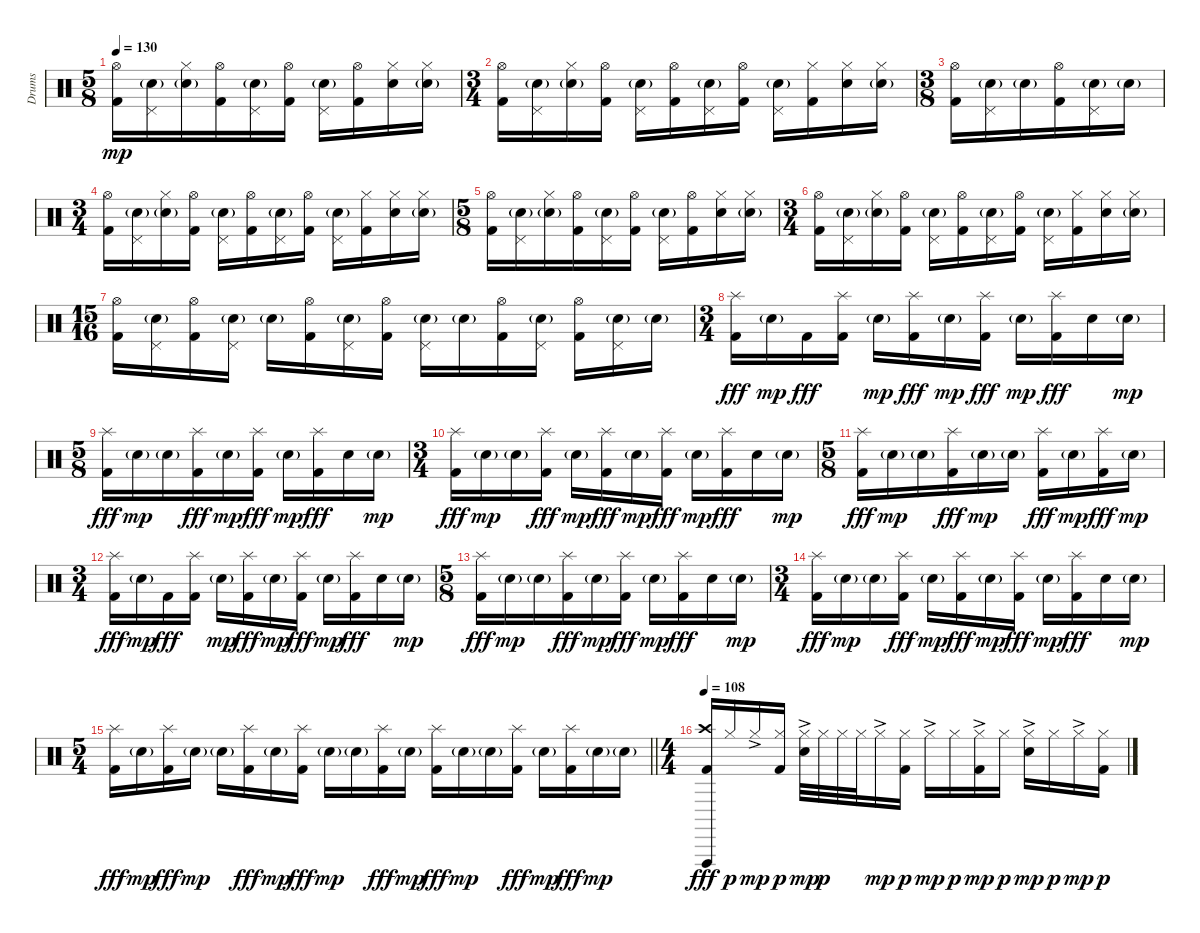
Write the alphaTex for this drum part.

\track ("Drums" "Drums") {instrument percussion}
\staff {score}
\articulation defaults
\ts (5 8)
\tempo 130
\clef neutral
\ks c
("Kick (hit) 2" "Hi-Hat (open)").16{dy mp} ("Electric Snare (hit)"{g} "Pedal Hi-Hat (hit)").16 ("Electric Snare (hit)"{g} "Hi-Hat (closed)").16 ("Kick (hit) 2" "Hi-Hat (open)").16 ("Electric Snare (hit)"{g} "Pedal Hi-Hat (hit)").16 ("Kick (hit) 2" "Hi-Hat (open)").16 ("Electric Snare (hit)"{g} "Pedal Hi-Hat (hit)").16 ("Kick (hit) 2" "Hi-Hat (open)").16 ("Electric Snare (hit)" "Hi-Hat (closed)").16 ("Electric Snare (hit)"{g} "Hi-Hat (closed)").16 |
\ts (3 4)
("Kick (hit) 2" "Hi-Hat (open)").16 ("Electric Snare (hit)"{g} "Pedal Hi-Hat (hit)").16 ("Electric Snare (hit)"{g} "Hi-Hat (closed)").16 ("Kick (hit) 2" "Hi-Hat (open)").16 ("Electric Snare (hit)"{g} "Pedal Hi-Hat (hit)").16 ("Kick (hit) 2" "Hi-Hat (open)").16 ("Electric Snare (hit)"{g} "Pedal Hi-Hat (hit)").16 ("Kick (hit) 2" "Hi-Hat (open)").16 ("Electric Snare (hit)"{g} "Pedal Hi-Hat (hit)").16 ("Kick (hit) 2" "Hi-Hat (closed)").16 ("Electric Snare (hit)" "Hi-Hat (closed)").16 ("Electric Snare (hit)"{g} "Hi-Hat (closed)").16 |
\ts (3 8)
("Kick (hit) 2" "Hi-Hat (open)").16 ("Electric Snare (hit)"{g} "Pedal Hi-Hat (hit)").16 "Electric Snare (hit)"{g}.16 ("Kick (hit) 2" "Hi-Hat (open)").16 ("Electric Snare (hit)"{g} "Pedal Hi-Hat (hit)").16 "Electric Snare (hit)"{g}.16 |
\ts (3 4)
("Kick (hit) 2" "Hi-Hat (open)").16 ("Electric Snare (hit)"{g} "Pedal Hi-Hat (hit)").16 ("Electric Snare (hit)"{g} "Hi-Hat (closed)").16 ("Kick (hit) 2" "Hi-Hat (open)").16 ("Electric Snare (hit)"{g} "Pedal Hi-Hat (hit)").16 ("Kick (hit) 2" "Hi-Hat (open)").16 ("Electric Snare (hit)"{g} "Pedal Hi-Hat (hit)").16 ("Kick (hit) 2" "Hi-Hat (open)").16 ("Electric Snare (hit)"{g} "Pedal Hi-Hat (hit)").16 ("Kick (hit) 2" "Hi-Hat (closed)").16 ("Electric Snare (hit)" "Hi-Hat (closed)").16 ("Electric Snare (hit)"{g} "Hi-Hat (closed)").16 |
\ts (5 8)
("Kick (hit) 2" "Hi-Hat (open)").16 ("Electric Snare (hit)"{g} "Pedal Hi-Hat (hit)").16 ("Electric Snare (hit)"{g} "Hi-Hat (closed)").16 ("Kick (hit) 2" "Hi-Hat (open)").16 ("Electric Snare (hit)"{g} "Pedal Hi-Hat (hit)").16 ("Kick (hit) 2" "Hi-Hat (open)").16 ("Electric Snare (hit)"{g} "Pedal Hi-Hat (hit)").16 ("Kick (hit) 2" "Hi-Hat (open)").16 ("Electric Snare (hit)" "Hi-Hat (closed)").16 ("Electric Snare (hit)"{g} "Hi-Hat (closed)").16 |
\ts (3 4)
("Kick (hit) 2" "Hi-Hat (open)").16 ("Electric Snare (hit)"{g} "Pedal Hi-Hat (hit)").16 ("Electric Snare (hit)"{g} "Hi-Hat (closed)").16 ("Kick (hit) 2" "Hi-Hat (open)").16 ("Electric Snare (hit)"{g} "Pedal Hi-Hat (hit)").16 ("Kick (hit) 2" "Hi-Hat (open)").16 ("Electric Snare (hit)"{g} "Pedal Hi-Hat (hit)").16 ("Kick (hit) 2" "Hi-Hat (open)").16 ("Electric Snare (hit)"{g} "Pedal Hi-Hat (hit)").16 ("Kick (hit) 2" "Hi-Hat (closed)").16 ("Electric Snare (hit)" "Hi-Hat (closed)").16 ("Electric Snare (hit)"{g} "Hi-Hat (closed)").16 |
\ts (15 16)
("Kick (hit) 2" "Hi-Hat (open)").16 ("Electric Snare (hit)"{g} "Pedal Hi-Hat (hit)").16 ("Kick (hit) 2" "Hi-Hat (open)").16 ("Electric Snare (hit)"{g} "Pedal Hi-Hat (hit)").16 "Electric Snare (hit)"{g}.16 ("Kick (hit) 2" "Hi-Hat (open)").16 ("Electric Snare (hit)"{g} "Pedal Hi-Hat (hit)").16 ("Kick (hit) 2" "Hi-Hat (open)").16 ("Electric Snare (hit)"{g} "Pedal Hi-Hat (hit)").16 "Electric Snare (hit)"{g}.16 ("Kick (hit) 2" "Hi-Hat (open)").16 ("Electric Snare (hit)"{g} "Pedal Hi-Hat (hit)").16 ("Kick (hit) 2" "Hi-Hat (open)").16 ("Electric Snare (hit)"{g} "Pedal Hi-Hat (hit)").16 "Electric Snare (hit)"{g}.16 |
\ts (3 4)
("Kick (hit) 2" "Splash (hit)").16{dy fff} "Electric Snare (hit)"{g}.16{dy mp} "Kick (hit) 2".16{dy fff} ("Kick (hit) 2" "Splash (hit)").16 "Electric Snare (hit)"{g}.16{dy mp} ("Kick (hit) 2" "Splash (hit)").16{dy fff} "Electric Snare (hit)"{g}.16{dy mp} ("Kick (hit) 2" "Splash (hit)").16{dy fff} "Electric Snare (hit)"{g}.16{dy mp} ("Kick (hit) 2" "Splash (hit)").16{dy fff} "Electric Snare (hit)".16 "Electric Snare (hit)"{g}.16{dy mp} |
\ts (5 8)
("Kick (hit) 2" "Splash (hit)").16{dy fff} "Electric Snare (hit)"{g}.16{dy mp} "Electric Snare (hit)"{g}.16 ("Kick (hit) 2" "Splash (hit)").16{dy fff} "Electric Snare (hit)"{g}.16{dy mp} ("Kick (hit) 2" "Splash (hit)").16{dy fff} "Electric Snare (hit)"{g}.16{dy mp} ("Kick (hit) 2" "Splash (hit)").16{dy fff} "Electric Snare (hit)".16 "Electric Snare (hit)"{g}.16{dy mp} |
\ts (3 4)
("Kick (hit) 2" "Splash (hit)").16{dy fff} "Electric Snare (hit)"{g}.16{dy mp} "Electric Snare (hit)"{g}.16 ("Kick (hit) 2" "Splash (hit)").16{dy fff} "Electric Snare (hit)"{g}.16{dy mp} ("Kick (hit) 2" "Splash (hit)").16{dy fff} "Electric Snare (hit)"{g}.16{dy mp} ("Kick (hit) 2" "Splash (hit)").16{dy fff} "Electric Snare (hit)"{g}.16{dy mp} ("Kick (hit) 2" "Splash (hit)").16{dy fff} "Electric Snare (hit)".16 "Electric Snare (hit)"{g}.16{dy mp} |
\ts (5 8)
("Kick (hit) 2" "Splash (hit)").16{dy fff} "Electric Snare (hit)"{g}.16{dy mp} "Electric Snare (hit)"{g}.16 ("Kick (hit) 2" "Splash (hit)").16{dy fff} "Electric Snare (hit)"{g}.16{dy mp} "Electric Snare (hit)"{g}.16 ("Kick (hit) 2" "Splash (hit)").16{dy fff} "Electric Snare (hit)"{g}.16{dy mp} ("Kick (hit) 2" "Splash (hit)").16{dy fff} "Electric Snare (hit)"{g}.16{dy mp} |
\ts (3 4)
("Kick (hit) 2" "Splash (hit)").16{dy fff} "Electric Snare (hit)"{g}.16{dy mp} "Kick (hit) 2".16{dy fff} ("Kick (hit) 2" "Splash (hit)").16 "Electric Snare (hit)"{g}.16{dy mp} ("Kick (hit) 2" "Splash (hit)").16{dy fff} "Electric Snare (hit)"{g}.16{dy mp} ("Kick (hit) 2" "Splash (hit)").16{dy fff} "Electric Snare (hit)"{g}.16{dy mp} ("Kick (hit) 2" "Splash (hit)").16{dy fff} "Electric Snare (hit)".16 "Electric Snare (hit)"{g}.16{dy mp} |
\ts (5 8)
("Kick (hit) 2" "Splash (hit)").16{dy fff} "Electric Snare (hit)"{g}.16{dy mp} "Electric Snare (hit)"{g}.16 ("Kick (hit) 2" "Splash (hit)").16{dy fff} "Electric Snare (hit)"{g}.16{dy mp} ("Kick (hit) 2" "Splash (hit)").16{dy fff} "Electric Snare (hit)"{g}.16{dy mp} ("Kick (hit) 2" "Splash (hit)").16{dy fff} "Electric Snare (hit)".16 "Electric Snare (hit)"{g}.16{dy mp} |
\ts (3 4)
("Kick (hit) 2" "Splash (hit)").16{dy fff} "Electric Snare (hit)"{g}.16{dy mp} "Electric Snare (hit)"{g}.16 ("Kick (hit) 2" "Splash (hit)").16{dy fff} "Electric Snare (hit)"{g}.16{dy mp} ("Kick (hit) 2" "Splash (hit)").16{dy fff} "Electric Snare (hit)"{g}.16{dy mp} ("Kick (hit) 2" "Splash (hit)").16{dy fff} "Electric Snare (hit)"{g}.16{dy mp} ("Kick (hit) 2" "Splash (hit)").16{dy fff} "Electric Snare (hit)".16 "Electric Snare (hit)"{g}.16{dy mp} |
\ts (5 4)
\barLineRight lightlight
("Kick (hit) 2" "Splash (hit)").16{dy fff} "Electric Snare (hit)"{g}.16{dy mp} ("Kick (hit) 2" "Splash (hit)").16{dy fff} "Electric Snare (hit)"{g}.16{dy mp} "Electric Snare (hit)"{g}.16 ("Kick (hit) 2" "Splash (hit)").16{dy fff} "Electric Snare (hit)"{g}.16{dy mp} ("Kick (hit) 2" "Splash (hit)").16{dy fff} "Electric Snare (hit)"{g}.16{dy mp} "Electric Snare (hit)"{g}.16 ("Kick (hit) 2" "Splash (hit)").16{dy fff} "Electric Snare (hit)"{g}.16{dy mp} ("Kick (hit) 2" "Splash (hit)").16{dy fff} "Electric Snare (hit)"{g}.16{dy mp} "Electric Snare (hit)"{g}.16 ("Kick (hit) 2" "Splash (hit)").16{dy fff} "Electric Snare (hit)"{g}.16{dy mp} ("Kick (hit) 2" "Splash (hit)").16{dy fff} "Electric Snare (hit)"{g}.16{dy mp} "Electric Snare (hit)"{g}.16 |
\ts (4 4)
\tempo 108
("Kick (hit) 2" "Crash high (hit)" "Vibraslap (hit)").16{dy fff} "Hi-Hat (closed)".16{dy p} "Hi-Hat (closed)"{ac}.16{dy mp} ("Kick (hit) 2" "Hi-Hat (closed)").16{dy p} ("Electric Snare (hit)" "Hi-Hat (closed)"{ac}).32{dy mp} "Hi-Hat (closed)".32{dy p} "Hi-Hat (closed)".32 "Hi-Hat (closed)".32 "Hi-Hat (closed)"{ac}.16{dy mp} ("Kick (hit) 2" "Hi-Hat (closed)").16{dy p} "Hi-Hat (closed)"{ac}.16{dy mp} "Hi-Hat (closed)".16{dy p} ("Kick (hit) 2" "Hi-Hat (closed)"{ac}).16{dy mp} "Hi-Hat (closed)".16{dy p} ("Electric Snare (hit)" "Hi-Hat (closed)"{ac}).16{dy mp} "Hi-Hat (closed)".16{dy p} "Hi-Hat (closed)"{ac}.16{dy mp} ("Kick (hit) 2" "Hi-Hat (closed)").16{dy p}
